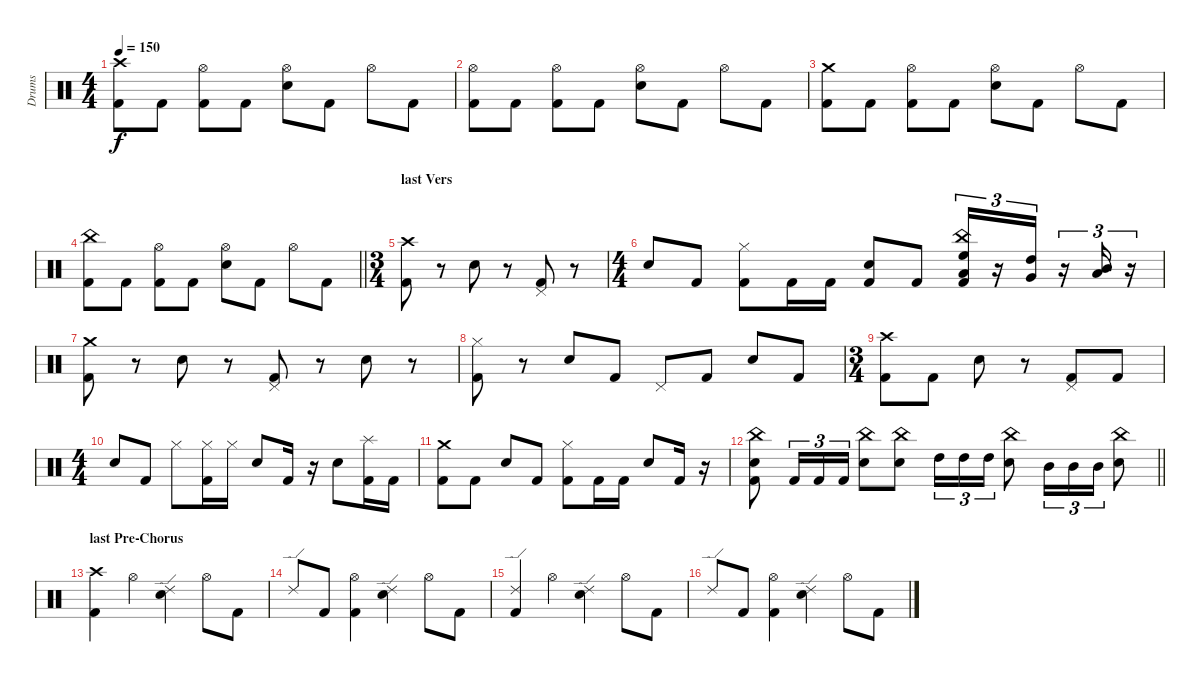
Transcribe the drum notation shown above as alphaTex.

\track ("Drums" "Drums") {instrument percussion}
\staff {score}
\articulation defaults
\ts (4 4)
\tempo 150
\clef neutral
\ks c
("Crash high (hit)" "Kick (hit) 2").8{dy f} "Kick (hit) 2".8 ("Hi-Hat (open)" "Kick (hit) 2").8 "Kick (hit) 2".8 ("Hi-Hat (open)" "Snare (hit) 2").8 "Kick (hit) 2".8 "Hi-Hat (open)".8 "Kick (hit) 2".8 |
("Hi-Hat (open)" "Kick (hit) 2").8 "Kick (hit) 2".8 ("Hi-Hat (open)" "Kick (hit) 2").8 "Kick (hit) 2".8 ("Hi-Hat (open)" "Snare (hit) 2").8 "Kick (hit) 2".8 "Hi-Hat (open)".8 "Kick (hit) 2".8 |
("Crash medium (hit)" "Kick (hit) 2").8 "Kick (hit) 2".8 ("Hi-Hat (open)" "Kick (hit) 2").8 "Kick (hit) 2".8 ("Hi-Hat (open)" "Snare (hit) 2").8 "Kick (hit) 2".8 "Hi-Hat (open)".8 "Kick (hit) 2".8 |
\barLineRight lightlight
("China (hit)" "Kick (hit) 2").8 "Kick (hit) 2".8 ("Hi-Hat (open)" "Kick (hit) 2").8 "Kick (hit) 2".8 ("Hi-Hat (open)" "Snare (hit) 2").8 "Kick (hit) 2".8 "Hi-Hat (open)".8 "Kick (hit) 2".8 |
\ts (3 4)
\section ("" "last Vers")
("Crash high (hit)" "Kick (hit) 2").8 r.8 "Snare (hit) 2".8 r.8 ("Pedal Hi-Hat (hit)" "Kick (hit) 2").8 r.8 |
\ts (4 4)
"Snare (hit) 2".8 "Kick (hit) 2".8 ("Hi-Hat (closed)" "Kick (hit) 2").8 "Kick (hit) 2".16 "Kick (hit) 2".16 ("Snare (hit) 2" "Kick (hit) 2").8 "Kick (hit) 2".8 ("China (hit)" "High Floor Tom (hit)" "Low Tom (hit)" "Kick (hit) 2").16{tu (3 2)} r.16{tu (3 2)} ("High Tom (hit)" "Very Low Tom (hit)").16{tu (3 2)} r.16{tu (3 2)} ("Mid Tom (hit)" "Low Floor Tom (hit)").16{tu (3 2)} r.16{tu (3 2)} |
("Crash medium (hit)" "Kick (hit) 2").8 r.8 "Snare (hit) 2".8 r.8 ("Pedal Hi-Hat (hit)" "Kick (hit) 2").8 r.8 "Snare (hit) 2".8 r.8 |
("Hi-Hat (closed)" "Kick (hit) 2").8 r.8 "Snare (hit) 2".8 "Kick (hit) 2".8 "Pedal Hi-Hat (hit)".8 "Kick (hit) 2".8 "Snare (hit) 2".8 "Kick (hit) 2".8 |
\ts (3 4)
("Crash high (hit)" "Kick (hit) 2").8 "Kick (hit) 2".8 "Snare (hit) 2".8 r.8 ("Pedal Hi-Hat (hit)" "Kick (hit) 2").8 "Kick (hit) 2".8 |
\ts (4 4)
"Snare (hit) 2".8 "Kick (hit) 2".8 "Hi-Hat (closed)".8 ("Hi-Hat (closed)" "Kick (hit) 2").16 "Hi-Hat (closed)".16 "Snare (hit) 2".8 "Kick (hit) 2".16 r.16 "Snare (hit) 2".8 ("Splash (hit)" "Kick (hit) 2").16 "Kick (hit) 2".16 |
("Crash medium (hit)" "Kick (hit) 2").8 "Kick (hit) 2".8 "Snare (hit) 2".8 "Kick (hit) 2".8 ("Hi-Hat (closed)" "Kick (hit) 2").8 "Kick (hit) 2".16 "Kick (hit) 2".16 "Snare (hit) 2".8 "Kick (hit) 2".16 r.16 |
\barLineRight lightlight
("China (hit)" "Snare (hit) 2" "Kick (hit) 2").8 "Kick (hit) 2".16{tu (3 2)} "Kick (hit) 2".16{tu (3 2)} "Kick (hit) 2".16{tu (3 2)} ("China (hit)" "Snare (hit) 2").8 ("China (hit)" "Snare (hit) 2").8 "High Tom (hit)".16{tu (3 2)} "High Tom (hit)".16{tu (3 2)} "High Tom (hit)".16{tu (3 2)} ("China (hit)" "Snare (hit) 2").8 "Mid Tom (hit)".16{tu (3 2)} "Mid Tom (hit)".16{tu (3 2)} "Mid Tom (hit)".16{tu (3 2)} ("China (hit)" "Snare (hit) 2").8 |
\section ("" "last Pre-Chorus")
("Crash high (hit)" "Kick (hit) 2").4 "Hi-Hat (open)".4 ("Ride (edge) 2" "Snare (hit) 2").4 "Hi-Hat (open)".8 "Kick (hit) 2".8 |
"Ride (edge) 2".8 "Kick (hit) 2".8 ("Hi-Hat (open)" "Kick (hit) 2").4 ("Ride (edge) 2" "Snare (hit) 2").4 "Hi-Hat (open)".8 "Kick (hit) 2".8 |
("Ride (edge) 2" "Kick (hit) 2").4 "Hi-Hat (open)".4 ("Ride (edge) 2" "Snare (hit) 2").4 "Hi-Hat (open)".8 "Kick (hit) 2".8 |
"Ride (edge) 2".8 "Kick (hit) 2".8 ("Hi-Hat (open)" "Kick (hit) 2").4 ("Ride (edge) 2" "Snare (hit) 2").4 "Hi-Hat (open)".8 "Kick (hit) 2".8
